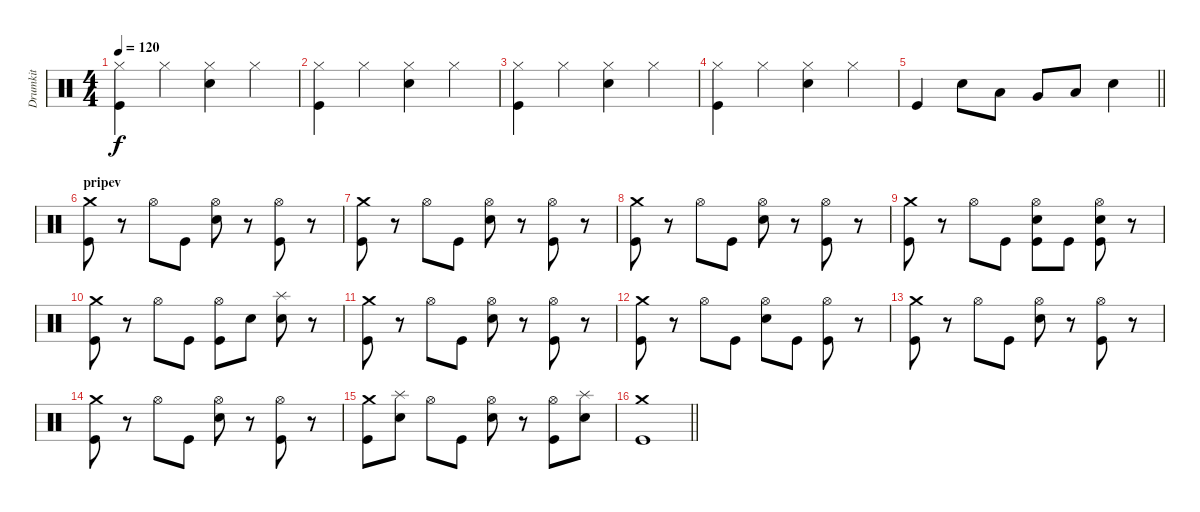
\track ("Drumkit" "Drumkit") {instrument percussion}
\staff {score}
\articulation defaults
\ts (4 4)
\tempo 120
\clef neutral
\ks c
("Kick (hit)" "Hi-Hat (closed)").4{dy f} "Hi-Hat (closed)".4 ("Snare (hit) 2" "Hi-Hat (closed)").4 "Hi-Hat (closed)".4 |
("Kick (hit)" "Hi-Hat (closed)").4 "Hi-Hat (closed)".4 ("Snare (hit) 2" "Hi-Hat (closed)").4 "Hi-Hat (closed)".4 |
("Kick (hit)" "Hi-Hat (closed)").4 "Hi-Hat (closed)".4 ("Snare (hit) 2" "Hi-Hat (closed)").4 "Hi-Hat (closed)".4 |
("Kick (hit)" "Hi-Hat (closed)").4 "Hi-Hat (closed)".4 ("Snare (hit) 2" "Hi-Hat (closed)").4 "Hi-Hat (closed)".4 |
\barLineRight lightlight "Kick (hit)".4 "Snare (hit) 2".8 "Low Tom (hit)".8 "Very Low Tom (hit)".8 "Low Floor Tom (hit)".8 "Snare (hit) 2".4
|
\section ("" "pripev")
("Crash medium (hit)" "Kick (hit)").8 r.8 "Hi-Hat (open)".8 "Kick (hit)".8 ("Hi-Hat (open)" "Snare (hit) 2").8 r.8 ("Hi-Hat (open)" "Kick (hit)").8 r.8 |
("Crash medium (hit)" "Kick (hit)").8 r.8 "Hi-Hat (open)".8 "Kick (hit)".8 ("Hi-Hat (open)" "Snare (hit) 2").8 r.8 ("Hi-Hat (open)" "Kick (hit)").8 r.8 |
("Crash medium (hit)" "Kick (hit)").8 r.8 "Hi-Hat (open)".8 "Kick (hit)".8 ("Hi-Hat (open)" "Snare (hit) 2").8 r.8 ("Hi-Hat (open)" "Kick (hit)").8 r.8 |
("Crash medium (hit)" "Kick (hit)").8 r.8 "Hi-Hat (open)".8 "Kick (hit)".8 ("Hi-Hat (open)" "Snare (hit) 2" "Kick (hit)").8 "Kick (hit)".8 ("Hi-Hat (open)" "Snare (hit) 2" "Kick (hit)").8 r.8 |
("Crash medium (hit)" "Kick (hit)").8 r.8 "Hi-Hat (open)".8 "Kick (hit)".8 ("Hi-Hat (open)" "Kick (hit)").8 "Snare (hit) 2".8 ("Snare (hit) 2" "Splash (hit)").8 r.8 |
("Crash medium (hit)" "Kick (hit)").8 r.8 "Hi-Hat (open)".8 "Kick (hit)".8 ("Hi-Hat (open)" "Snare (hit) 2").8 r.8 ("Hi-Hat (open)" "Kick (hit)").8 r.8 |
("Crash medium (hit)" "Kick (hit)").8 r.8 "Hi-Hat (open)".8 "Kick (hit)".8 ("Hi-Hat (open)" "Snare (hit) 2").8 "Kick (hit)".8 ("Hi-Hat (open)" "Kick (hit)").8 r.8 |
("Crash medium (hit)" "Kick (hit)").8 r.8 "Hi-Hat (open)".8 "Kick (hit)".8 ("Hi-Hat (open)" "Snare (hit) 2").8 r.8 ("Hi-Hat (open)" "Kick (hit)").8 r.8 |
("Crash medium (hit)" "Kick (hit)").8 r.8 "Hi-Hat (open)".8 "Kick (hit)".8 ("Hi-Hat (open)" "Snare (hit) 2").8 r.8 ("Hi-Hat (open)" "Kick (hit)").8 r.8 |
("Crash medium (hit)" "Kick (hit)").8 ("Splash (hit)" "Snare (hit) 2").8 "Hi-Hat (open)".8 "Kick (hit)".8 ("Hi-Hat (open)" "Snare (hit) 2").8 r.8 ("Hi-Hat (open)" "Kick (hit)").8 ("Snare (hit) 2" "Splash (hit)").8 |
\barLineRight lightlight
("Crash medium (hit)" "Kick (hit)").1
